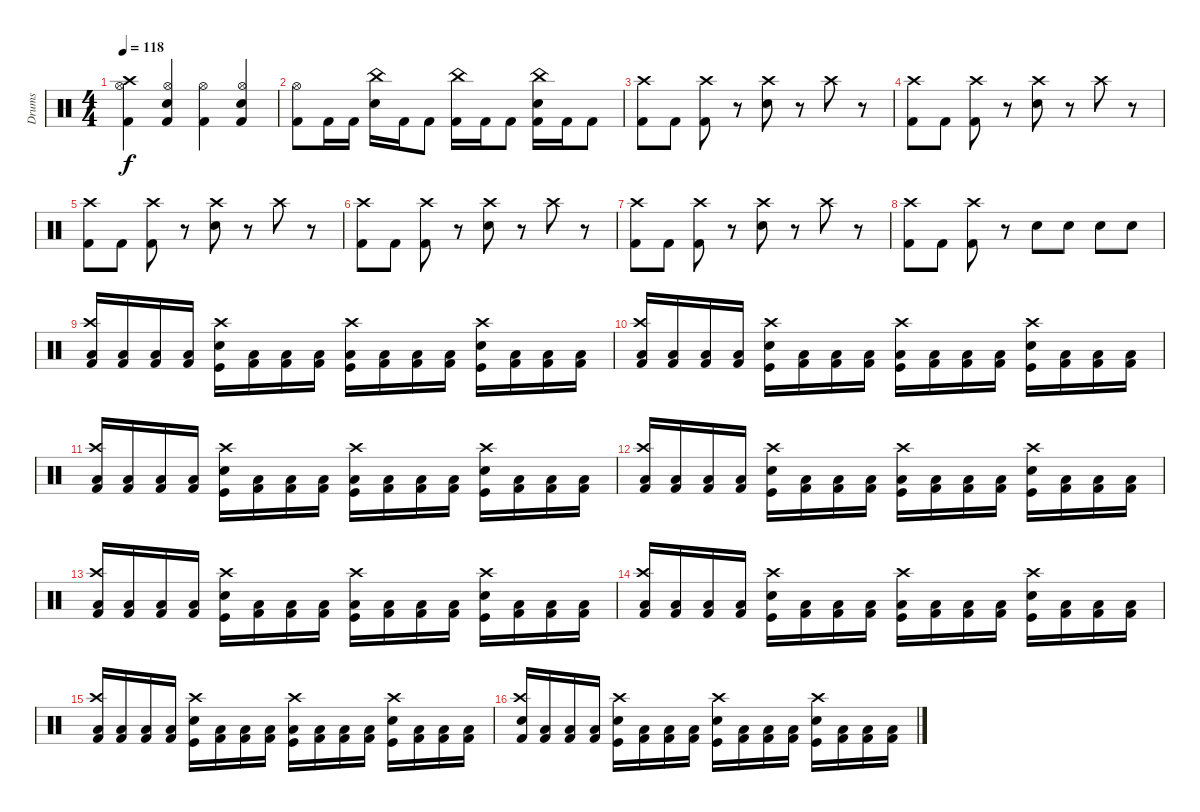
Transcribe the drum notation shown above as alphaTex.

\track ("Drums" "Drums") {instrument percussion}
\staff {score}
\articulation defaults
\ts (4 4)
\tempo 118
\clef neutral
\ks c
("Kick (hit) 2" "Hi-Hat (open)" "Crash high (hit)").4{dy f} ("Kick (hit) 2" "Snare (hit) 2" "Hi-Hat (open)").4 ("Kick (hit) 2" "Hi-Hat (open)").4 ("Kick (hit) 2" "Snare (hit) 2" "Hi-Hat (open)").4 |
("Kick (hit) 2" "Hi-Hat (open)").8 "Kick (hit) 2".16 "Kick (hit) 2".16 ("Snare (hit) 2" "China (hit)").16 "Kick (hit) 2".16 "Kick (hit) 2".8 ("Kick (hit) 2" "China (hit)").16 "Kick (hit) 2".16 "Kick (hit) 2".8 ("Kick (hit) 2" "Snare (hit) 2" "China (hit)").16 "Kick (hit) 2".16 "Kick (hit) 2".8 |
("Kick (hit) 2" "Crash high (hit)").8 "Kick (hit) 2".8 ("Kick (hit) 2" "Crash high (hit)").8 r.8 ("Snare (hit) 2" "Crash high (hit)").8 r.8 "Crash high (hit)".8 r.8 |
("Kick (hit) 2" "Crash high (hit)").8 "Kick (hit) 2".8 ("Kick (hit) 2" "Crash high (hit)").8 r.8 ("Snare (hit) 2" "Crash high (hit)").8 r.8 "Crash high (hit)".8 r.8 |
("Kick (hit) 2" "Crash high (hit)").8 "Kick (hit) 2".8 ("Kick (hit) 2" "Crash high (hit)").8 r.8 ("Snare (hit) 2" "Crash high (hit)").8 r.8 "Crash high (hit)".8 r.8 |
("Kick (hit) 2" "Crash high (hit)").8 "Kick (hit) 2".8 ("Kick (hit) 2" "Crash high (hit)").8 r.8 ("Snare (hit) 2" "Crash high (hit)").8 r.8 "Crash high (hit)".8 r.8 |
("Kick (hit) 2" "Crash high (hit)").8 "Kick (hit) 2".8 ("Kick (hit) 2" "Crash high (hit)").8 r.8 ("Snare (hit) 2" "Crash high (hit)").8 r.8 "Crash high (hit)".8 r.8 |
("Kick (hit) 2" "Crash high (hit)").8 "Kick (hit) 2".8 ("Kick (hit) 2" "Crash high (hit)").8 r.8 "Snare (hit) 2".8 "Snare (hit) 2".8 "Snare (hit) 2".8 "Snare (hit) 2".8 |
("Kick (hit) 2" "Low Floor Tom (hit)" "Crash high (hit)").16 ("Kick (hit) 2" "Low Floor Tom (hit)").16 ("Kick (hit) 2" "Low Floor Tom (hit)").16 ("Kick (hit) 2" "Low Floor Tom (hit)").16 ("Kick (hit)" "Snare (hit) 2" "Crash high (hit)").16 ("Kick (hit) 2" "Low Floor Tom (hit)").16 ("Kick (hit) 2" "Low Floor Tom (hit)").16 ("Kick (hit) 2" "Low Floor Tom (hit)").16 ("Kick (hit)" "Low Floor Tom (hit)" "Crash high (hit)").16 ("Kick (hit) 2" "Low Floor Tom (hit)").16 ("Kick (hit) 2" "Low Floor Tom (hit)").16 ("Kick (hit) 2" "Low Floor Tom (hit)").16 ("Kick (hit)" "Snare (hit) 2" "Crash high (hit)").16 ("Kick (hit) 2" "Low Floor Tom (hit)").16 ("Kick (hit) 2" "Low Floor Tom (hit)").16 ("Kick (hit) 2" "Low Floor Tom (hit)").16 |
("Kick (hit) 2" "Low Floor Tom (hit)" "Crash high (hit)").16 ("Kick (hit) 2" "Low Floor Tom (hit)").16 ("Kick (hit) 2" "Low Floor Tom (hit)").16 ("Kick (hit) 2" "Low Floor Tom (hit)").16 ("Kick (hit)" "Snare (hit) 2" "Crash high (hit)").16 ("Kick (hit) 2" "Low Floor Tom (hit)").16 ("Kick (hit) 2" "Low Floor Tom (hit)").16 ("Kick (hit) 2" "Low Floor Tom (hit)").16 ("Kick (hit)" "Low Floor Tom (hit)" "Crash high (hit)").16 ("Kick (hit) 2" "Low Floor Tom (hit)").16 ("Kick (hit) 2" "Low Floor Tom (hit)").16 ("Kick (hit) 2" "Low Floor Tom (hit)").16 ("Kick (hit)" "Snare (hit) 2" "Crash high (hit)").16 ("Kick (hit) 2" "Low Floor Tom (hit)").16 ("Kick (hit) 2" "Low Floor Tom (hit)").16 ("Kick (hit) 2" "Low Floor Tom (hit)").16 |
("Kick (hit) 2" "Low Floor Tom (hit)" "Crash high (hit)").16 ("Kick (hit) 2" "Low Floor Tom (hit)").16 ("Kick (hit) 2" "Low Floor Tom (hit)").16 ("Kick (hit) 2" "Low Floor Tom (hit)").16 ("Kick (hit)" "Snare (hit) 2" "Crash high (hit)").16 ("Kick (hit) 2" "Low Floor Tom (hit)").16 ("Kick (hit) 2" "Low Floor Tom (hit)").16 ("Kick (hit) 2" "Low Floor Tom (hit)").16 ("Kick (hit)" "Low Floor Tom (hit)" "Crash high (hit)").16 ("Kick (hit) 2" "Low Floor Tom (hit)").16 ("Kick (hit) 2" "Low Floor Tom (hit)").16 ("Kick (hit) 2" "Low Floor Tom (hit)").16 ("Kick (hit)" "Snare (hit) 2" "Crash high (hit)").16 ("Kick (hit) 2" "Low Floor Tom (hit)").16 ("Kick (hit) 2" "Low Floor Tom (hit)").16 ("Kick (hit) 2" "Low Floor Tom (hit)").16 |
("Kick (hit) 2" "Low Floor Tom (hit)" "Crash high (hit)").16 ("Kick (hit) 2" "Low Floor Tom (hit)").16 ("Kick (hit) 2" "Low Floor Tom (hit)").16 ("Kick (hit) 2" "Low Floor Tom (hit)").16 ("Kick (hit)" "Snare (hit) 2" "Crash high (hit)").16 ("Kick (hit) 2" "Low Floor Tom (hit)").16 ("Kick (hit) 2" "Low Floor Tom (hit)").16 ("Kick (hit) 2" "Low Floor Tom (hit)").16 ("Kick (hit)" "Low Floor Tom (hit)" "Crash high (hit)").16 ("Kick (hit) 2" "Low Floor Tom (hit)").16 ("Kick (hit) 2" "Low Floor Tom (hit)").16 ("Kick (hit) 2" "Low Floor Tom (hit)").16 ("Kick (hit)" "Snare (hit) 2" "Crash high (hit)").16 ("Kick (hit) 2" "Low Floor Tom (hit)").16 ("Kick (hit) 2" "Low Floor Tom (hit)").16 ("Kick (hit) 2" "Low Floor Tom (hit)").16 |
("Kick (hit) 2" "Low Floor Tom (hit)" "Crash high (hit)").16 ("Kick (hit) 2" "Low Floor Tom (hit)").16 ("Kick (hit) 2" "Low Floor Tom (hit)").16 ("Kick (hit) 2" "Low Floor Tom (hit)").16 ("Kick (hit)" "Snare (hit) 2" "Crash high (hit)").16 ("Kick (hit) 2" "Low Floor Tom (hit)").16 ("Kick (hit) 2" "Low Floor Tom (hit)").16 ("Kick (hit) 2" "Low Floor Tom (hit)").16 ("Kick (hit)" "Low Floor Tom (hit)" "Crash high (hit)").16 ("Kick (hit) 2" "Low Floor Tom (hit)").16 ("Kick (hit) 2" "Low Floor Tom (hit)").16 ("Kick (hit) 2" "Low Floor Tom (hit)").16 ("Kick (hit)" "Snare (hit) 2" "Crash high (hit)").16 ("Kick (hit) 2" "Low Floor Tom (hit)").16 ("Kick (hit) 2" "Low Floor Tom (hit)").16 ("Kick (hit) 2" "Low Floor Tom (hit)").16 |
("Kick (hit) 2" "Low Floor Tom (hit)" "Crash high (hit)").16 ("Kick (hit) 2" "Low Floor Tom (hit)").16 ("Kick (hit) 2" "Low Floor Tom (hit)").16 ("Kick (hit) 2" "Low Floor Tom (hit)").16 ("Kick (hit)" "Snare (hit) 2" "Crash high (hit)").16 ("Kick (hit) 2" "Low Floor Tom (hit)").16 ("Kick (hit) 2" "Low Floor Tom (hit)").16 ("Kick (hit) 2" "Low Floor Tom (hit)").16 ("Kick (hit)" "Low Floor Tom (hit)" "Crash high (hit)").16 ("Kick (hit) 2" "Low Floor Tom (hit)").16 ("Kick (hit) 2" "Low Floor Tom (hit)").16 ("Kick (hit) 2" "Low Floor Tom (hit)").16 ("Kick (hit)" "Snare (hit) 2" "Crash high (hit)").16 ("Kick (hit) 2" "Low Floor Tom (hit)").16 ("Kick (hit) 2" "Low Floor Tom (hit)").16 ("Kick (hit) 2" "Low Floor Tom (hit)").16 |
("Kick (hit) 2" "Low Floor Tom (hit)" "Crash high (hit)").16 ("Kick (hit) 2" "Low Floor Tom (hit)").16 ("Kick (hit) 2" "Low Floor Tom (hit)").16 ("Kick (hit) 2" "Low Floor Tom (hit)").16 ("Kick (hit)" "Snare (hit) 2" "Crash high (hit)").16 ("Kick (hit) 2" "Low Floor Tom (hit)").16 ("Kick (hit) 2" "Low Floor Tom (hit)").16 ("Kick (hit) 2" "Low Floor Tom (hit)").16 ("Kick (hit)" "Low Floor Tom (hit)" "Crash high (hit)").16 ("Kick (hit) 2" "Low Floor Tom (hit)").16 ("Kick (hit) 2" "Low Floor Tom (hit)").16 ("Kick (hit) 2" "Low Floor Tom (hit)").16 ("Kick (hit)" "Snare (hit) 2" "Crash high (hit)").16 ("Kick (hit) 2" "Low Floor Tom (hit)").16 ("Kick (hit) 2" "Low Floor Tom (hit)").16 ("Kick (hit) 2" "Low Floor Tom (hit)").16 |
("Kick (hit) 2" "Snare (hit) 2" "Crash high (hit)").16 ("Kick (hit) 2" "Low Floor Tom (hit)").16 ("Kick (hit) 2" "Low Floor Tom (hit)").16 ("Kick (hit) 2" "Low Floor Tom (hit)").16 ("Kick (hit)" "Snare (hit) 2" "Crash high (hit)").16 ("Kick (hit) 2" "Low Floor Tom (hit)").16 ("Kick (hit) 2" "Low Floor Tom (hit)").16 ("Kick (hit) 2" "Low Floor Tom (hit)").16 ("Kick (hit)" "Snare (hit) 2" "Crash high (hit)").16 ("Kick (hit) 2" "Low Floor Tom (hit)").16 ("Kick (hit) 2" "Low Floor Tom (hit)").16 ("Kick (hit) 2" "Low Floor Tom (hit)").16 ("Kick (hit)" "Snare (hit) 2" "Crash high (hit)").16 ("Kick (hit) 2" "Low Floor Tom (hit)").16 ("Kick (hit) 2" "Low Floor Tom (hit)").16 ("Kick (hit) 2" "Low Floor Tom (hit)").16
